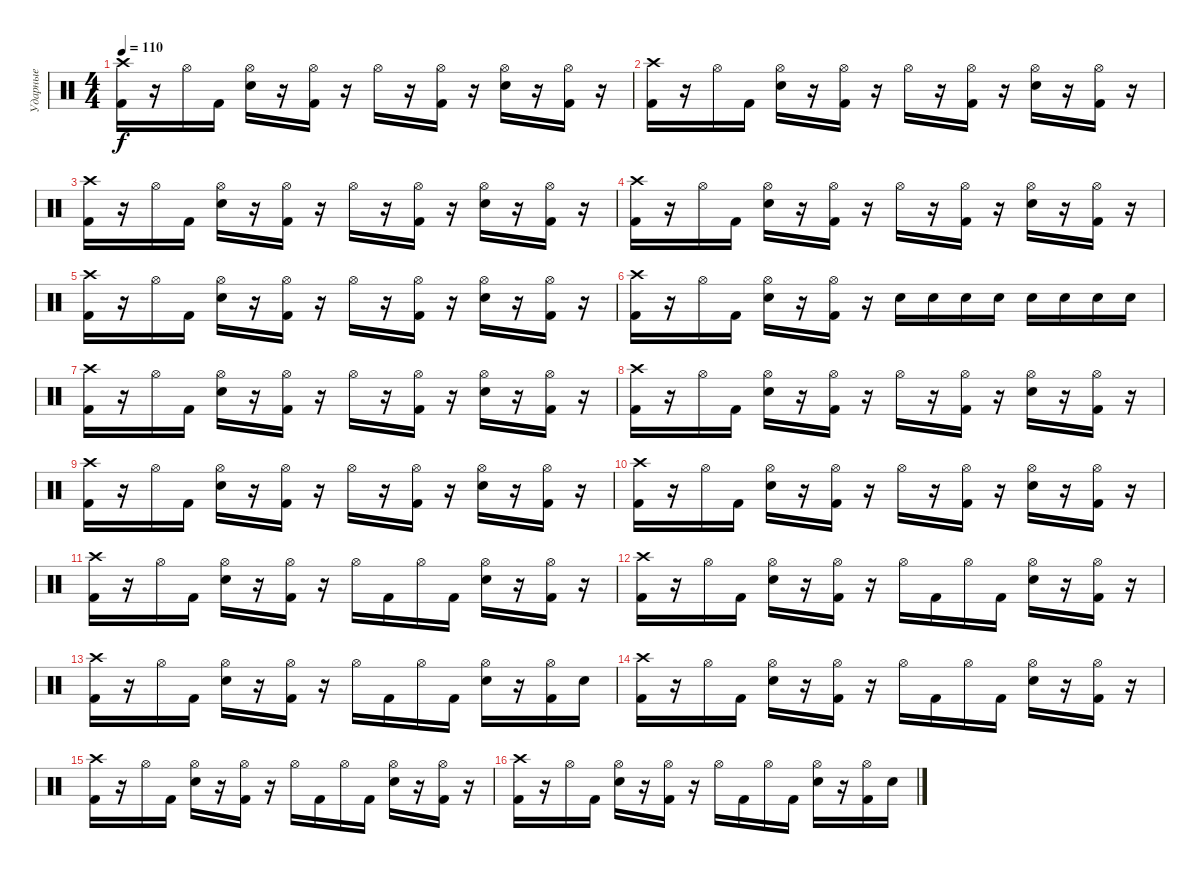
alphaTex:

\track ("Ударные" "Ударные") {instrument percussion}
\staff {score}
\articulation defaults
\ts (4 4)
\tempo 110
\clef neutral
\ks c
("Crash high (hit)" "Kick (hit) 2").16{dy f} r.16 "Hi-Hat (open)".16 "Kick (hit) 2".16 ("Hi-Hat (open)" "Snare (hit) 2").16 r.16 ("Hi-Hat (open)" "Kick (hit) 2").16 r.16 "Hi-Hat (open)".16 r.16 ("Hi-Hat (open)" "Kick (hit) 2").16 r.16 ("Hi-Hat (open)" "Snare (hit) 2").16 r.16 ("Hi-Hat (open)" "Kick (hit) 2").16 r.16 |
("Crash high (hit)" "Kick (hit) 2").16 r.16 "Hi-Hat (open)".16 "Kick (hit) 2".16 ("Hi-Hat (open)" "Snare (hit) 2").16 r.16 ("Hi-Hat (open)" "Kick (hit) 2").16 r.16 "Hi-Hat (open)".16 r.16 ("Hi-Hat (open)" "Kick (hit) 2").16 r.16 ("Hi-Hat (open)" "Snare (hit) 2").16 r.16 ("Hi-Hat (open)" "Kick (hit) 2").16 r.16 |
("Crash high (hit)" "Kick (hit) 2").16 r.16 "Hi-Hat (open)".16 "Kick (hit) 2".16 ("Hi-Hat (open)" "Snare (hit) 2").16 r.16 ("Hi-Hat (open)" "Kick (hit) 2").16 r.16 "Hi-Hat (open)".16 r.16 ("Hi-Hat (open)" "Kick (hit) 2").16 r.16 ("Hi-Hat (open)" "Snare (hit) 2").16 r.16 ("Hi-Hat (open)" "Kick (hit) 2").16 r.16 |
("Crash high (hit)" "Kick (hit) 2").16 r.16 "Hi-Hat (open)".16 "Kick (hit) 2".16 ("Hi-Hat (open)" "Snare (hit) 2").16 r.16 ("Hi-Hat (open)" "Kick (hit) 2").16 r.16 "Hi-Hat (open)".16 r.16 ("Hi-Hat (open)" "Kick (hit) 2").16 r.16 ("Hi-Hat (open)" "Snare (hit) 2").16 r.16 ("Hi-Hat (open)" "Kick (hit) 2").16 r.16 |
("Crash high (hit)" "Kick (hit) 2").16 r.16 "Hi-Hat (open)".16 "Kick (hit) 2".16 ("Hi-Hat (open)" "Snare (hit) 2").16 r.16 ("Hi-Hat (open)" "Kick (hit) 2").16 r.16 "Hi-Hat (open)".16 r.16 ("Hi-Hat (open)" "Kick (hit) 2").16 r.16 ("Hi-Hat (open)" "Snare (hit) 2").16 r.16 ("Hi-Hat (open)" "Kick (hit) 2").16 r.16 |
("Crash high (hit)" "Kick (hit) 2").16 r.16 "Hi-Hat (open)".16 "Kick (hit) 2".16 ("Hi-Hat (open)" "Snare (hit) 2").16 r.16 ("Hi-Hat (open)" "Kick (hit) 2").16 r.16 "Snare (hit) 2".16 "Snare (hit) 2".16 "Snare (hit) 2".16 "Snare (hit) 2".16 "Snare (hit) 2".16 "Snare (hit) 2".16 "Snare (hit) 2".16 "Snare (hit) 2".16 |
("Crash high (hit)" "Kick (hit) 2").16 r.16 "Hi-Hat (open)".16 "Kick (hit) 2".16 ("Hi-Hat (open)" "Snare (hit) 2").16 r.16 ("Hi-Hat (open)" "Kick (hit) 2").16 r.16 "Hi-Hat (open)".16 r.16 ("Hi-Hat (open)" "Kick (hit) 2").16 r.16 ("Hi-Hat (open)" "Snare (hit) 2").16 r.16 ("Hi-Hat (open)" "Kick (hit) 2").16 r.16 |
("Crash high (hit)" "Kick (hit) 2").16 r.16 "Hi-Hat (open)".16 "Kick (hit) 2".16 ("Hi-Hat (open)" "Snare (hit) 2").16 r.16 ("Hi-Hat (open)" "Kick (hit) 2").16 r.16 "Hi-Hat (open)".16 r.16 ("Hi-Hat (open)" "Kick (hit) 2").16 r.16 ("Hi-Hat (open)" "Snare (hit) 2").16 r.16 ("Hi-Hat (open)" "Kick (hit) 2").16 r.16 |
("Crash high (hit)" "Kick (hit) 2").16 r.16 "Hi-Hat (open)".16 "Kick (hit) 2".16 ("Hi-Hat (open)" "Snare (hit) 2").16 r.16 ("Hi-Hat (open)" "Kick (hit) 2").16 r.16 "Hi-Hat (open)".16 r.16 ("Hi-Hat (open)" "Kick (hit) 2").16 r.16 ("Hi-Hat (open)" "Snare (hit) 2").16 r.16 ("Hi-Hat (open)" "Kick (hit) 2").16 r.16 |
("Crash high (hit)" "Kick (hit) 2").16 r.16 "Hi-Hat (open)".16 "Kick (hit) 2".16 ("Hi-Hat (open)" "Snare (hit) 2").16 r.16 ("Hi-Hat (open)" "Kick (hit) 2").16 r.16 "Hi-Hat (open)".16 r.16 ("Hi-Hat (open)" "Kick (hit) 2").16 r.16 ("Hi-Hat (open)" "Snare (hit) 2").16 r.16 ("Hi-Hat (open)" "Kick (hit) 2").16 r.16 |
("Crash high (hit)" "Kick (hit) 2").16 r.16 "Hi-Hat (open)".16 "Kick (hit) 2".16 ("Hi-Hat (open)" "Snare (hit) 2").16 r.16 ("Hi-Hat (open)" "Kick (hit) 2").16 r.16 "Hi-Hat (open)".16 "Kick (hit) 2".16 "Hi-Hat (open)".16 "Kick (hit) 2".16 ("Hi-Hat (open)" "Snare (hit) 2").16 r.16 ("Hi-Hat (open)" "Kick (hit) 2").16 r.16 |
("Crash high (hit)" "Kick (hit) 2").16 r.16 "Hi-Hat (open)".16 "Kick (hit) 2".16 ("Hi-Hat (open)" "Snare (hit) 2").16 r.16 ("Hi-Hat (open)" "Kick (hit) 2").16 r.16 "Hi-Hat (open)".16 "Kick (hit) 2".16 "Hi-Hat (open)".16 "Kick (hit) 2".16 ("Hi-Hat (open)" "Snare (hit) 2").16 r.16 ("Hi-Hat (open)" "Kick (hit) 2").16 r.16 |
("Crash high (hit)" "Kick (hit) 2").16 r.16 "Hi-Hat (open)".16 "Kick (hit) 2".16 ("Hi-Hat (open)" "Snare (hit) 2").16 r.16 ("Hi-Hat (open)" "Kick (hit) 2").16 r.16 "Hi-Hat (open)".16 "Kick (hit) 2".16 "Hi-Hat (open)".16 "Kick (hit) 2".16 ("Hi-Hat (open)" "Snare (hit) 2").16 r.16 ("Hi-Hat (open)" "Kick (hit) 2").16 "Snare (hit) 2".16 |
("Crash high (hit)" "Kick (hit) 2").16 r.16 "Hi-Hat (open)".16 "Kick (hit) 2".16 ("Hi-Hat (open)" "Snare (hit) 2").16 r.16 ("Hi-Hat (open)" "Kick (hit) 2").16 r.16 "Hi-Hat (open)".16 "Kick (hit) 2".16 "Hi-Hat (open)".16 "Kick (hit) 2".16 ("Hi-Hat (open)" "Snare (hit) 2").16 r.16 ("Hi-Hat (open)" "Kick (hit) 2").16 r.16 |
("Crash high (hit)" "Kick (hit) 2").16 r.16 "Hi-Hat (open)".16 "Kick (hit) 2".16 ("Hi-Hat (open)" "Snare (hit) 2").16 r.16 ("Hi-Hat (open)" "Kick (hit) 2").16 r.16 "Hi-Hat (open)".16 "Kick (hit) 2".16 "Hi-Hat (open)".16 "Kick (hit) 2".16 ("Hi-Hat (open)" "Snare (hit) 2").16 r.16 ("Hi-Hat (open)" "Kick (hit) 2").16 r.16 |
("Crash high (hit)" "Kick (hit) 2").16 r.16 "Hi-Hat (open)".16 "Kick (hit) 2".16 ("Hi-Hat (open)" "Snare (hit) 2").16 r.16 ("Hi-Hat (open)" "Kick (hit) 2").16 r.16 "Hi-Hat (open)".16 "Kick (hit) 2".16 "Hi-Hat (open)".16 "Kick (hit) 2".16 ("Hi-Hat (open)" "Snare (hit) 2").16 r.16 ("Hi-Hat (open)" "Kick (hit) 2").16 "Snare (hit) 2".16
